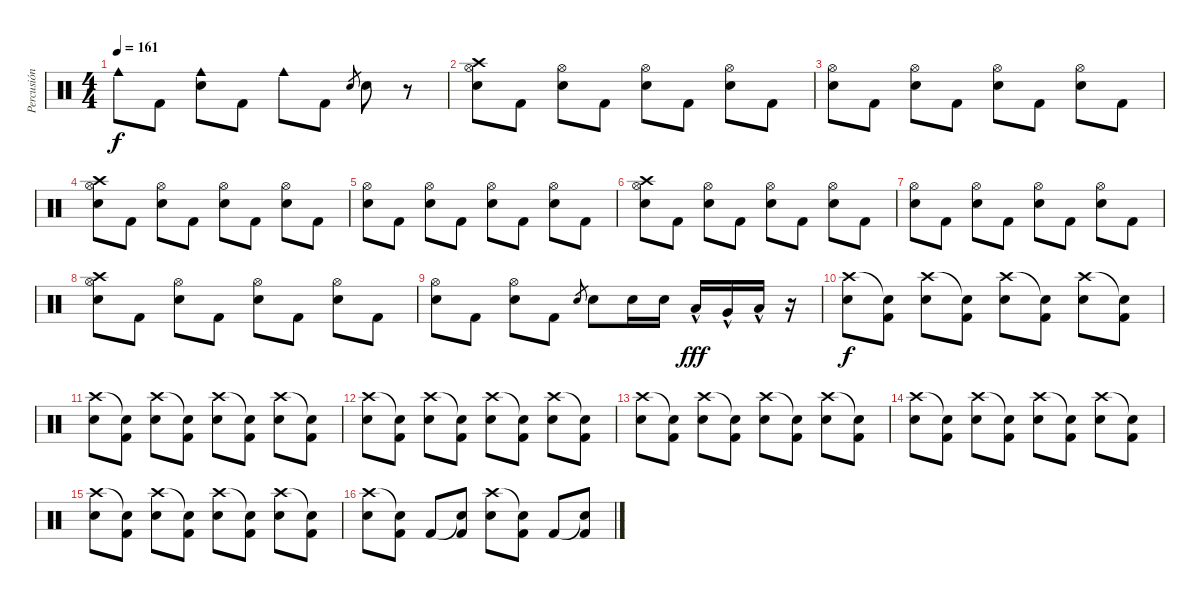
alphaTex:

\track ("Percusión" "Percusión") {instrument percussion}
\staff {score}
\articulation defaults
\ts (4 4)
\tempo 161
\clef neutral
\ks c "Cowbell medium (hit)".8{dy f} "Kick (hit) 2".8
("Cowbell medium (hit)" "Snare (hit) 2").8 "Kick (hit) 2".8 "Cowbell medium (hit)".8 "Kick (hit) 2".8 "Snare (hit) 2".8{gr} "Snare (hit) 2".8 r.8 |
("Crash high (hit)" "Hi-Hat (open)" "Snare (hit) 2").8 "Kick (hit) 2".8 ("Hi-Hat (open)" "Snare (hit) 2").8 "Kick (hit) 2".8 ("Hi-Hat (open)" "Snare (hit) 2").8 "Kick (hit) 2".8 ("Hi-Hat (open)" "Snare (hit) 2").8 "Kick (hit) 2".8 |
("Hi-Hat (open)" "Snare (hit) 2").8 "Kick (hit) 2".8 ("Hi-Hat (open)" "Snare (hit) 2").8 "Kick (hit) 2".8 ("Hi-Hat (open)" "Snare (hit) 2").8 "Kick (hit) 2".8 ("Hi-Hat (open)" "Snare (hit) 2").8 "Kick (hit) 2".8 |
("Crash high (hit)" "Hi-Hat (open)" "Snare (hit) 2").8 "Kick (hit) 2".8 ("Hi-Hat (open)" "Snare (hit) 2").8 "Kick (hit) 2".8 ("Hi-Hat (open)" "Snare (hit) 2").8 "Kick (hit) 2".8 ("Hi-Hat (open)" "Snare (hit) 2").8 "Kick (hit) 2".8 |
("Hi-Hat (open)" "Snare (hit) 2").8 "Kick (hit) 2".8 ("Hi-Hat (open)" "Snare (hit) 2").8 "Kick (hit) 2".8 ("Hi-Hat (open)" "Snare (hit) 2").8 "Kick (hit) 2".8 ("Hi-Hat (open)" "Snare (hit) 2").8 "Kick (hit) 2".8 |
("Crash high (hit)" "Hi-Hat (open)" "Snare (hit) 2").8 "Kick (hit) 2".8 ("Hi-Hat (open)" "Snare (hit) 2").8 "Kick (hit) 2".8 ("Hi-Hat (open)" "Snare (hit) 2").8 "Kick (hit) 2".8 ("Hi-Hat (open)" "Snare (hit) 2").8 "Kick (hit) 2".8 |
("Hi-Hat (open)" "Snare (hit) 2").8 "Kick (hit) 2".8 ("Hi-Hat (open)" "Snare (hit) 2").8 "Kick (hit) 2".8 ("Hi-Hat (open)" "Snare (hit) 2").8 "Kick (hit) 2".8 ("Hi-Hat (open)" "Snare (hit) 2").8 "Kick (hit) 2".8 |
("Crash high (hit)" "Hi-Hat (open)" "Snare (hit) 2").8 "Kick (hit) 2".8 ("Hi-Hat (open)" "Snare (hit) 2").8 "Kick (hit) 2".8 ("Hi-Hat (open)" "Snare (hit) 2").8 "Kick (hit) 2".8 ("Hi-Hat (open)" "Snare (hit) 2").8 "Kick (hit) 2".8 |
("Hi-Hat (open)" "Snare (hit) 2").8 "Kick (hit) 2".8 ("Hi-Hat (open)" "Snare (hit) 2").8 "Kick (hit) 2".8 "Snare (hit) 2".8{gr} "Snare (hit) 2".8 "Snare (hit) 2".16 "Snare (hit) 2".16 "Low Tom (hit)"{hac}.16{dy fff} "Very Low Tom (hit)"{hac}.16 "Low Floor Tom (hit)"{hac}.16 r.16 |
("Crash high (hit)" "Snare (hit) 2").8{dy f} ("Snare (hit)"{t} "Kick (hit) 2").8 ("Crash high (hit)" "Snare (hit) 2").8 ("Snare (hit)"{t} "Kick (hit) 2").8 ("Crash high (hit)" "Snare (hit) 2").8 ("Snare (hit)"{t} "Kick (hit) 2").8 ("Crash high (hit)" "Snare (hit) 2").8 ("Snare (hit)"{t} "Kick (hit) 2").8 |
("Crash high (hit)" "Snare (hit) 2").8 ("Snare (hit)"{t} "Kick (hit) 2").8 ("Crash high (hit)" "Snare (hit) 2").8 ("Snare (hit)"{t} "Kick (hit) 2").8 ("Crash high (hit)" "Snare (hit) 2").8 ("Snare (hit)"{t} "Kick (hit) 2").8 ("Crash high (hit)" "Snare (hit) 2").8 ("Snare (hit)"{t} "Kick (hit) 2").8 |
("Crash high (hit)" "Snare (hit) 2").8 ("Snare (hit)"{t} "Kick (hit) 2").8 ("Crash high (hit)" "Snare (hit) 2").8 ("Snare (hit)"{t} "Kick (hit) 2").8 ("Crash high (hit)" "Snare (hit) 2").8 ("Snare (hit)"{t} "Kick (hit) 2").8 ("Crash high (hit)" "Snare (hit) 2").8 ("Snare (hit)"{t} "Kick (hit) 2").8 |
("Crash high (hit)" "Snare (hit) 2").8 ("Snare (hit)"{t} "Kick (hit) 2").8 ("Crash high (hit)" "Snare (hit) 2").8 ("Snare (hit)"{t} "Kick (hit) 2").8 ("Crash high (hit)" "Snare (hit) 2").8 ("Snare (hit)"{t} "Kick (hit) 2").8 ("Crash high (hit)" "Snare (hit) 2").8 ("Snare (hit)"{t} "Kick (hit) 2").8 |
("Crash high (hit)" "Snare (hit) 2").8 ("Snare (hit)"{t} "Kick (hit) 2").8 ("Crash high (hit)" "Snare (hit) 2").8 ("Snare (hit)"{t} "Kick (hit) 2").8 ("Crash high (hit)" "Snare (hit) 2").8 ("Snare (hit)"{t} "Kick (hit) 2").8 ("Crash high (hit)" "Snare (hit) 2").8 ("Snare (hit)"{t} "Kick (hit) 2").8 |
("Crash high (hit)" "Snare (hit) 2").8 ("Snare (hit)"{t} "Kick (hit) 2").8 ("Crash high (hit)" "Snare (hit) 2").8 ("Snare (hit)"{t} "Kick (hit) 2").8 ("Crash high (hit)" "Snare (hit) 2").8 ("Snare (hit)"{t} "Kick (hit) 2").8 ("Crash high (hit)" "Snare (hit) 2").8 ("Snare (hit)"{t} "Kick (hit) 2").8 |
("Crash high (hit)" "Snare (hit) 2").8 ("Snare (hit)"{t} "Kick (hit) 2").8 "Kick (hit) 2".8 ("Snare (hit)"{t} "Kick (hit) 2").8 ("Crash high (hit)" "Snare (hit) 2").8 ("Snare (hit)"{t} "Kick (hit) 2").8 "Kick (hit) 2".8 ("Snare (hit)"{t} "Kick (hit) 2").8
